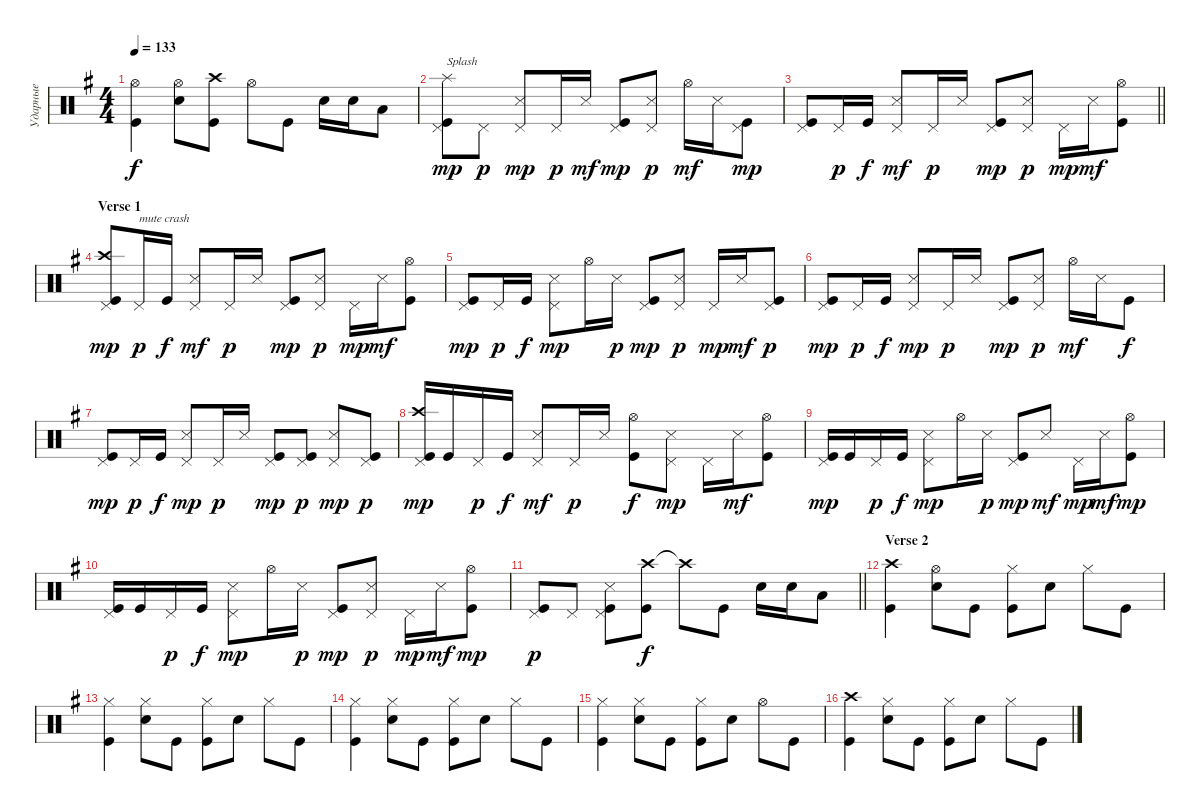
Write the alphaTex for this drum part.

\track ("Ударные" "Ударные") {instrument percussion}
\staff {score}
\articulation defaults
\ts (4 4)
\tempo 133
\clef neutral
\ks eminor
("Kick (hit)" "Hi-Hat (open)").4{dy f} ("Snare (hit) 2" "Hi-Hat (open)").8 ("Kick (hit)" "Crash high (hit)").8 "Hi-Hat (open)".8 "Kick (hit)".8 "Snare (hit) 2".16 "Snare (hit) 2".16 "Low Tom (hit)".8 |
("Pedal Hi-Hat (hit)" "Splash (hit)" "Kick (hit)").8{txt "Splash" dy mp} "Pedal Hi-Hat (hit)".8{dy p} ("Snare (side stick) 3" "Pedal Hi-Hat (hit)").8{dy mp} "Pedal Hi-Hat (hit)".16{dy p} "Snare (side stick) 3".16{dy mf} ("Kick (hit)" "Pedal Hi-Hat (hit)").8{dy mp} ("Snare (side stick) 3" "Pedal Hi-Hat (hit)").8{dy p} "Hi-Hat (open)".16{dy mf} "Snare (side stick) 3".16 ("Kick (hit)" "Pedal Hi-Hat (hit)").8{dy mp} |
\barLineRight lightlight
("Kick (hit)" "Pedal Hi-Hat (hit)").8 "Pedal Hi-Hat (hit)".16{dy p} "Kick (hit)".16{dy f} ("Pedal Hi-Hat (hit)" "Snare (side stick) 3").8{dy mf} "Pedal Hi-Hat (hit)".16{dy p} "Snare (side stick) 3".16 ("Kick (hit)" "Pedal Hi-Hat (hit)").8{dy mp} ("Snare (side stick) 3" "Pedal Hi-Hat (hit)").8{dy p} "Pedal Hi-Hat (hit)".16{dy mp} "Snare (side stick) 3".16{dy mf} ("Kick (hit)" "Hi-Hat (open)").8 |
\section ("" "Verse 1")
("Pedal Hi-Hat (hit)" "Kick (hit)" "Crash high (hit)").8{dy mp} "Pedal Hi-Hat (hit)".16{txt "mute crash" dy p} "Kick (hit)".16{dy f} ("Pedal Hi-Hat (hit)" "Snare (side stick) 3").8{dy mf} "Pedal Hi-Hat (hit)".16{dy p} "Snare (side stick) 3".16 ("Kick (hit)" "Pedal Hi-Hat (hit)").8{dy mp} ("Snare (side stick) 3" "Pedal Hi-Hat (hit)").8{dy p} "Pedal Hi-Hat (hit)".16{dy mp} "Snare (side stick) 3".16{dy mf} ("Kick (hit)" "Hi-Hat (open)").8 |
("Pedal Hi-Hat (hit)" "Kick (hit)").8{dy mp} "Pedal Hi-Hat (hit)".16{dy p} "Kick (hit)".16{dy f} ("Snare (side stick) 3" "Pedal Hi-Hat (hit)").8{dy mp} "Hi-Hat (open)".16 "Snare (side stick) 3".16{dy p} ("Kick (hit)" "Pedal Hi-Hat (hit)").8{dy mp} ("Snare (side stick) 3" "Pedal Hi-Hat (hit)").8{dy p} "Pedal Hi-Hat (hit)".16{dy mp} "Snare (side stick) 3".16{dy mf} ("Kick (hit)" "Pedal Hi-Hat (hit)").8{dy p} |
("Pedal Hi-Hat (hit)" "Kick (hit)").8{dy mp} "Pedal Hi-Hat (hit)".16{dy p} "Kick (hit)".16{dy f} ("Snare (side stick) 3" "Pedal Hi-Hat (hit)").8{dy mp} "Pedal Hi-Hat (hit)".16{dy p} "Snare (side stick) 3".16 ("Kick (hit)" "Pedal Hi-Hat (hit)").8{dy mp} ("Snare (side stick) 3" "Pedal Hi-Hat (hit)").8{dy p} "Hi-Hat (open)".16{dy mf} "Snare (side stick) 3".16 "Kick (hit)".8{dy f} |
("Pedal Hi-Hat (hit)" "Kick (hit)").8{dy mp} "Pedal Hi-Hat (hit)".16{dy p} "Kick (hit)".16{dy f} ("Snare (side stick) 3" "Pedal Hi-Hat (hit)").8{dy mp} "Pedal Hi-Hat (hit)".16{dy p} "Snare (side stick) 3".16 ("Kick (hit)" "Pedal Hi-Hat (hit)").8{dy mp} ("Kick (hit)" "Pedal Hi-Hat (hit)").8{dy p} ("Snare (side stick) 3" "Pedal Hi-Hat (hit)").8{dy mp} ("Kick (hit)" "Pedal Hi-Hat (hit)").8{dy p} |
("Pedal Hi-Hat (hit)" "Kick (hit)" "Crash high (hit)").16{dy mp} "Kick (hit)".16 "Pedal Hi-Hat (hit)".16{dy p} "Kick (hit)".16{dy f} ("Pedal Hi-Hat (hit)" "Snare (side stick) 3").8{dy mf} "Pedal Hi-Hat (hit)".16{dy p} "Snare (side stick) 3".16 ("Kick (hit)" "Hi-Hat (open)").8{dy f} ("Snare (side stick) 3" "Pedal Hi-Hat (hit)").8{dy mp} "Pedal Hi-Hat (hit)".16 "Snare (side stick) 3".16{dy mf} ("Kick (hit)" "Hi-Hat (open)").8 |
("Pedal Hi-Hat (hit)" "Kick (hit)").16{dy mp} "Kick (hit)".16 "Pedal Hi-Hat (hit)".16{dy p} "Kick (hit)".16{dy f} ("Snare (side stick) 3" "Pedal Hi-Hat (hit)").8{dy mp} "Hi-Hat (open)".16 "Snare (side stick) 3".16{dy p} ("Kick (hit)" "Pedal Hi-Hat (hit)").8{dy mp} "Snare (side stick) 3".8{dy mf} "Pedal Hi-Hat (hit)".16{dy mp} "Snare (side stick) 3".16{dy mf} ("Kick (hit)" "Hi-Hat (open)").8{dy mp} |
("Pedal Hi-Hat (hit)" "Kick (hit)").16 "Kick (hit)".16 "Pedal Hi-Hat (hit)".16{dy p} "Kick (hit)".16{dy f} ("Snare (side stick) 3" "Pedal Hi-Hat (hit)").8{dy mp} "Hi-Hat (open)".16 "Snare (side stick) 3".16{dy p} ("Kick (hit)" "Pedal Hi-Hat (hit)").8{dy mp} ("Snare (side stick) 3" "Pedal Hi-Hat (hit)").8{dy p} "Pedal Hi-Hat (hit)".16{dy mp} "Snare (side stick) 3".16{dy mf} ("Kick (hit)" "Hi-Hat (open)").8{dy mp} |
\barLineRight lightlight
("Kick (hit)" "Pedal Hi-Hat (hit)").8{dy p} "Pedal Hi-Hat (hit)".8 ("Kick (hit)" "Snare (side stick) 3" "Pedal Hi-Hat (hit)").8 ("Crash high (hit)" "Kick (hit)").8{dy f} "Crash high (hit)"{t}.8 "Kick (hit)".8 "Snare (hit) 2".16 "Snare (hit) 2".16 "Low Tom (hit)".8 |
\section ("" "Verse 2")
("Kick (hit)" "Crash high (hit)").4 ("Snare (hit) 2" "Hi-Hat (open)").8 "Kick (hit)".8 ("Kick (hit)" "Hi-Hat (closed)").8 "Snare (hit) 2".8 "Hi-Hat (closed)".8 "Kick (hit)".8 |
("Kick (hit)" "Hi-Hat (closed)").4 ("Snare (hit) 2" "Hi-Hat (closed)").8 "Kick (hit)".8 ("Kick (hit)" "Hi-Hat (closed)").8 "Snare (hit) 2".8 "Hi-Hat (closed)".8 "Kick (hit)".8 |
("Kick (hit)" "Hi-Hat (closed)").4 ("Snare (hit) 2" "Hi-Hat (closed)").8 "Kick (hit)".8 ("Kick (hit)" "Hi-Hat (closed)").8 "Snare (hit) 2".8 "Hi-Hat (closed)".8 "Kick (hit)".8 |
("Kick (hit)" "Hi-Hat (closed)").4 ("Snare (hit) 2" "Hi-Hat (closed)").8 "Kick (hit)".8 ("Kick (hit)" "Hi-Hat (closed)").8 "Snare (hit) 2".8 "Hi-Hat (open)".8 "Kick (hit)".8 |
("Kick (hit)" "Crash high (hit)").4 ("Snare (hit) 2" "Hi-Hat (closed)").8 "Kick (hit)".8 ("Kick (hit)" "Hi-Hat (closed)").8 "Snare (hit) 2".8 "Hi-Hat (closed)".8 "Kick (hit)".8
